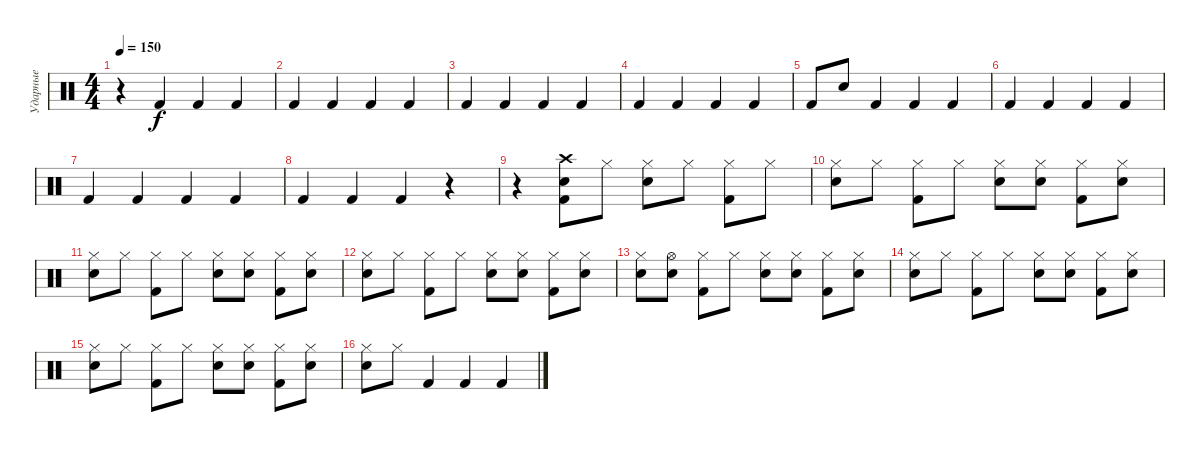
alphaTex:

\track ("Ударные" "Ударные") {instrument percussion}
\staff {score}
\articulation defaults
\ts (4 4)
\tempo 150
\clef neutral
\ks c
r.4{dy f} "Kick (hit) 2".4 "Kick (hit) 2".4 "Kick (hit) 2".4 |
"Kick (hit) 2".4 "Kick (hit) 2".4 "Kick (hit) 2".4 "Kick (hit) 2".4 |
"Kick (hit) 2".4 "Kick (hit) 2".4 "Kick (hit) 2".4 "Kick (hit) 2".4 |
"Kick (hit) 2".4 "Kick (hit) 2".4 "Kick (hit) 2".4 "Kick (hit) 2".4 |
"Kick (hit) 2".8 "Snare (hit) 2".8 "Kick (hit) 2".4 "Kick (hit) 2".4 "Kick (hit) 2".4 |
"Kick (hit) 2".4 "Kick (hit) 2".4 "Kick (hit) 2".4 "Kick (hit) 2".4 |
"Kick (hit) 2".4 "Kick (hit) 2".4 "Kick (hit) 2".4 "Kick (hit) 2".4 |
"Kick (hit) 2".4 "Kick (hit) 2".4 "Kick (hit) 2".4 r.4 |
r.4 ("Snare (hit)" "Kick (hit) 2" "Crash high (hit)").8 "Hi-Hat (closed)".8 ("Hi-Hat (closed)" "Electric Snare (hit)").8 "Hi-Hat (closed)".8 ("Hi-Hat (closed)" "Kick (hit) 2").8 "Hi-Hat (closed)".8 |
("Hi-Hat (closed)" "Electric Snare (hit)").8 "Hi-Hat (closed)".8 ("Hi-Hat (closed)" "Kick (hit) 2").8 "Hi-Hat (closed)".8 ("Hi-Hat (closed)" "Electric Snare (hit)").8 ("Hi-Hat (closed)" "Snare (hit)").8 ("Hi-Hat (closed)" "Kick (hit) 2").8 ("Hi-Hat (closed)" "Snare (hit)").8 |
("Hi-Hat (closed)" "Electric Snare (hit)").8 "Hi-Hat (closed)".8 ("Hi-Hat (closed)" "Kick (hit) 2").8 "Hi-Hat (closed)".8 ("Hi-Hat (closed)" "Electric Snare (hit)").8 ("Hi-Hat (closed)" "Snare (hit)").8 ("Hi-Hat (closed)" "Kick (hit) 2").8 ("Hi-Hat (closed)" "Snare (hit)").8 |
("Hi-Hat (closed)" "Electric Snare (hit)").8 "Hi-Hat (closed)".8 ("Hi-Hat (closed)" "Kick (hit) 2").8 "Hi-Hat (closed)".8 ("Hi-Hat (closed)" "Electric Snare (hit)").8 ("Hi-Hat (closed)" "Snare (hit)").8 ("Hi-Hat (closed)" "Kick (hit) 2").8 ("Hi-Hat (closed)" "Snare (hit)").8 |
("Hi-Hat (closed)" "Electric Snare (hit)").8 ("Snare (hit)" "Hi-Hat (open)").8 ("Hi-Hat (closed)" "Kick (hit) 2").8 "Hi-Hat (closed)".8 ("Hi-Hat (closed)" "Electric Snare (hit)").8 ("Hi-Hat (closed)" "Snare (hit)").8 ("Hi-Hat (closed)" "Kick (hit) 2").8 ("Hi-Hat (closed)" "Snare (hit)").8 |
("Hi-Hat (closed)" "Electric Snare (hit)").8 "Hi-Hat (closed)".8 ("Hi-Hat (closed)" "Kick (hit) 2").8 "Hi-Hat (closed)".8 ("Hi-Hat (closed)" "Electric Snare (hit)").8 ("Hi-Hat (closed)" "Snare (hit)").8 ("Hi-Hat (closed)" "Kick (hit) 2").8 ("Hi-Hat (closed)" "Snare (hit)").8 |
("Hi-Hat (closed)" "Electric Snare (hit)").8 "Hi-Hat (closed)".8 ("Hi-Hat (closed)" "Kick (hit) 2").8 "Hi-Hat (closed)".8 ("Hi-Hat (closed)" "Electric Snare (hit)").8 ("Hi-Hat (closed)" "Snare (hit)").8 ("Hi-Hat (closed)" "Kick (hit) 2").8 ("Hi-Hat (closed)" "Snare (hit)").8 |
("Hi-Hat (closed)" "Electric Snare (hit)").8 "Hi-Hat (closed)".8 "Kick (hit) 2".4 "Kick (hit) 2".4 "Kick (hit) 2".4
